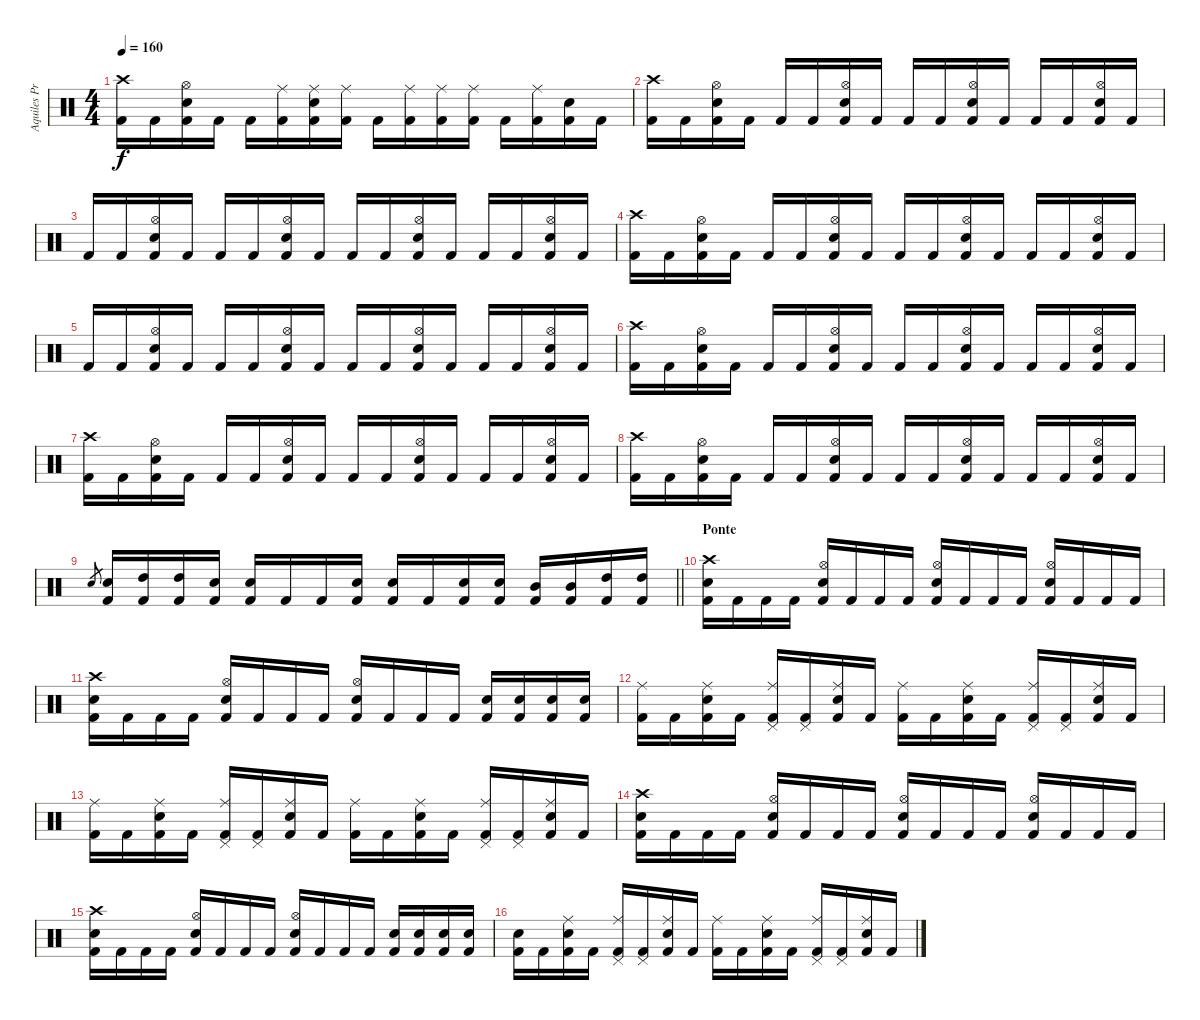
\track ("Aquiles Priester" "Aquiles Pr") {instrument percussion}
\staff {score}
\articulation defaults
\ts (4 4)
\tempo 160
\clef neutral
\ks c
("Crash high (hit)" "Kick (hit) 2").16{dy f} "Kick (hit) 2".16 ("Hi-Hat (open)" "Electric Snare (hit)" "Kick (hit) 2").16 "Kick (hit) 2".16 "Kick (hit) 2".16 ("Ride (middle)" "Kick (hit) 2").16 ("Ride (middle)" "Electric Snare (hit)" "Kick (hit) 2").16 ("Ride (middle)" "Kick (hit) 2").16 "Kick (hit) 2".16 ("Ride (middle)" "Kick (hit) 2").16 ("Ride (middle)" "Kick (hit) 2").16 ("Ride (middle)" "Kick (hit) 2").16 "Kick (hit) 2".16 ("Ride (middle)" "Kick (hit) 2").16 ("Electric Snare (hit)" "Kick (hit) 2").16 "Kick (hit) 2".16 |
("Crash high (hit)" "Kick (hit) 2").16 "Kick (hit) 2".16 ("Hi-Hat (open)" "Electric Snare (hit)" "Kick (hit) 2").16 "Kick (hit) 2".16 "Kick (hit) 2".16 "Kick (hit) 2".16 ("Hi-Hat (open)" "Electric Snare (hit)" "Kick (hit) 2").16 "Kick (hit) 2".16 "Kick (hit) 2".16 "Kick (hit) 2".16 ("Hi-Hat (open)" "Electric Snare (hit)" "Kick (hit) 2").16 "Kick (hit) 2".16 "Kick (hit) 2".16 "Kick (hit) 2".16 ("Hi-Hat (open)" "Electric Snare (hit)" "Kick (hit) 2").16 "Kick (hit) 2".16 |
"Kick (hit) 2".16 "Kick (hit) 2".16 ("Hi-Hat (open)" "Electric Snare (hit)" "Kick (hit) 2").16 "Kick (hit) 2".16 "Kick (hit) 2".16 "Kick (hit) 2".16 ("Hi-Hat (open)" "Electric Snare (hit)" "Kick (hit) 2").16 "Kick (hit) 2".16 "Kick (hit) 2".16 "Kick (hit) 2".16 ("Hi-Hat (open)" "Electric Snare (hit)" "Kick (hit) 2").16 "Kick (hit) 2".16 "Kick (hit) 2".16 "Kick (hit) 2".16 ("Hi-Hat (open)" "Electric Snare (hit)" "Kick (hit) 2").16 "Kick (hit) 2".16 |
("Crash high (hit)" "Kick (hit) 2").16 "Kick (hit) 2".16 ("Hi-Hat (open)" "Electric Snare (hit)" "Kick (hit) 2").16 "Kick (hit) 2".16 "Kick (hit) 2".16 "Kick (hit) 2".16 ("Hi-Hat (open)" "Electric Snare (hit)" "Kick (hit) 2").16 "Kick (hit) 2".16 "Kick (hit) 2".16 "Kick (hit) 2".16 ("Hi-Hat (open)" "Electric Snare (hit)" "Kick (hit) 2").16 "Kick (hit) 2".16 "Kick (hit) 2".16 "Kick (hit) 2".16 ("Hi-Hat (open)" "Electric Snare (hit)" "Kick (hit) 2").16 "Kick (hit) 2".16 |
"Kick (hit) 2".16 "Kick (hit) 2".16 ("Hi-Hat (open)" "Electric Snare (hit)" "Kick (hit) 2").16 "Kick (hit) 2".16 "Kick (hit) 2".16 "Kick (hit) 2".16 ("Hi-Hat (open)" "Electric Snare (hit)" "Kick (hit) 2").16 "Kick (hit) 2".16 "Kick (hit) 2".16 "Kick (hit) 2".16 ("Hi-Hat (open)" "Electric Snare (hit)" "Kick (hit) 2").16 "Kick (hit) 2".16 "Kick (hit) 2".16 "Kick (hit) 2".16 ("Hi-Hat (open)" "Electric Snare (hit)" "Kick (hit) 2").16 "Kick (hit) 2".16 |
("Crash high (hit)" "Kick (hit) 2").16 "Kick (hit) 2".16 ("Hi-Hat (open)" "Electric Snare (hit)" "Kick (hit) 2").16 "Kick (hit) 2".16 "Kick (hit) 2".16 "Kick (hit) 2".16 ("Hi-Hat (open)" "Electric Snare (hit)" "Kick (hit) 2").16 "Kick (hit) 2".16 "Kick (hit) 2".16 "Kick (hit) 2".16 ("Hi-Hat (open)" "Electric Snare (hit)" "Kick (hit) 2").16 "Kick (hit) 2".16 "Kick (hit) 2".16 "Kick (hit) 2".16 ("Hi-Hat (open)" "Electric Snare (hit)" "Kick (hit) 2").16 "Kick (hit) 2".16 |
("Crash high (hit)" "Kick (hit) 2").16 "Kick (hit) 2".16 ("Hi-Hat (open)" "Electric Snare (hit)" "Kick (hit) 2").16 "Kick (hit) 2".16 "Kick (hit) 2".16 "Kick (hit) 2".16 ("Hi-Hat (open)" "Electric Snare (hit)" "Kick (hit) 2").16 "Kick (hit) 2".16 "Kick (hit) 2".16 "Kick (hit) 2".16 ("Hi-Hat (open)" "Electric Snare (hit)" "Kick (hit) 2").16 "Kick (hit) 2".16 "Kick (hit) 2".16 "Kick (hit) 2".16 ("Hi-Hat (open)" "Electric Snare (hit)" "Kick (hit) 2").16 "Kick (hit) 2".16 |
("Crash high (hit)" "Kick (hit) 2").16 "Kick (hit) 2".16 ("Hi-Hat (open)" "Electric Snare (hit)" "Kick (hit) 2").16 "Kick (hit) 2".16 "Kick (hit) 2".16 "Kick (hit) 2".16 ("Hi-Hat (open)" "Electric Snare (hit)" "Kick (hit) 2").16 "Kick (hit) 2".16 "Kick (hit) 2".16 "Kick (hit) 2".16 ("Hi-Hat (open)" "Electric Snare (hit)" "Kick (hit) 2").16 "Kick (hit) 2".16 "Kick (hit) 2".16 "Kick (hit) 2".16 ("Hi-Hat (open)" "Electric Snare (hit)" "Kick (hit) 2").16 "Kick (hit) 2".16 |
\barLineRight lightlight "Electric Snare (hit)".8{gr}
("Electric Snare (hit)" "Kick (hit) 2").16 ("High Tom (hit)" "Kick (hit) 2").16 ("High Tom (hit)" "Kick (hit) 2").16 ("Electric Snare (hit)" "Kick (hit) 2").16 ("Electric Snare (hit)" "Kick (hit) 2").16 "Kick (hit) 2".16 "Kick (hit) 2".16 ("Electric Snare (hit)" "Kick (hit) 2").16 ("Electric Snare (hit)" "Kick (hit) 2").16 "Kick (hit) 2".16 ("Electric Snare (hit)" "Kick (hit) 2").16 ("Electric Snare (hit)" "Kick (hit) 2").16 ("Mid Tom (hit)" "Kick (hit) 2").16 ("Mid Tom (hit)" "Kick (hit) 2").16 ("High Tom (hit)" "Kick (hit) 2").16 ("High Tom (hit)" "Kick (hit) 2").16 |
\section ("" "Ponte")
("Crash high (hit)" "Electric Snare (hit)" "Kick (hit) 2").16 "Kick (hit) 2".16 "Kick (hit) 2".16 "Kick (hit) 2".16 ("Hi-Hat (open)" "Electric Snare (hit)" "Kick (hit) 2").16 "Kick (hit) 2".16 "Kick (hit) 2".16 "Kick (hit) 2".16 ("Hi-Hat (open)" "Electric Snare (hit)" "Kick (hit) 2").16 "Kick (hit) 2".16 "Kick (hit) 2".16 "Kick (hit) 2".16 ("Hi-Hat (open)" "Electric Snare (hit)" "Kick (hit) 2").16 "Kick (hit) 2".16 "Kick (hit) 2".16 "Kick (hit) 2".16 |
("Crash high (hit)" "Electric Snare (hit)" "Kick (hit) 2").16 "Kick (hit) 2".16 "Kick (hit) 2".16 "Kick (hit) 2".16 ("Hi-Hat (open)" "Electric Snare (hit)" "Kick (hit) 2").16 "Kick (hit) 2".16 "Kick (hit) 2".16 "Kick (hit) 2".16 ("Hi-Hat (open)" "Electric Snare (hit)" "Kick (hit) 2").16 "Kick (hit) 2".16 "Kick (hit) 2".16 "Kick (hit) 2".16 ("Electric Snare (hit)" "Kick (hit) 2").16 ("Electric Snare (hit)" "Kick (hit) 2").16 ("Electric Snare (hit)" "Kick (hit) 2").16 ("Electric Snare (hit)" "Kick (hit) 2").16 |
("Ride (middle)" "Kick (hit) 2").16 "Kick (hit) 2".16 ("Ride (middle)" "Electric Snare (hit)" "Kick (hit) 2").16 "Kick (hit) 2".16 ("Ride (middle)" "Pedal Hi-Hat (hit)" "Kick (hit) 2").16 ("Pedal Hi-Hat (hit)" "Kick (hit) 2").16 ("Ride (middle)" "Electric Snare (hit)" "Kick (hit) 2").16 "Kick (hit) 2".16 ("Ride (middle)" "Kick (hit) 2").16 "Kick (hit) 2".16 ("Ride (middle)" "Electric Snare (hit)" "Kick (hit) 2").16 "Kick (hit) 2".16 ("Ride (middle)" "Pedal Hi-Hat (hit)" "Kick (hit) 2").16 ("Pedal Hi-Hat (hit)" "Kick (hit) 2").16 ("Ride (middle)" "Electric Snare (hit)" "Kick (hit) 2").16 "Kick (hit) 2".16 |
("Ride (middle)" "Kick (hit) 2").16 "Kick (hit) 2".16 ("Ride (middle)" "Electric Snare (hit)" "Kick (hit) 2").16 "Kick (hit) 2".16 ("Ride (middle)" "Pedal Hi-Hat (hit)" "Kick (hit) 2").16 ("Pedal Hi-Hat (hit)" "Kick (hit) 2").16 ("Ride (middle)" "Electric Snare (hit)" "Kick (hit) 2").16 "Kick (hit) 2".16 ("Ride (middle)" "Kick (hit) 2").16 "Kick (hit) 2".16 ("Ride (middle)" "Electric Snare (hit)" "Kick (hit) 2").16 "Kick (hit) 2".16 ("Ride (middle)" "Pedal Hi-Hat (hit)" "Kick (hit) 2").16 ("Pedal Hi-Hat (hit)" "Kick (hit) 2").16 ("Ride (middle)" "Electric Snare (hit)" "Kick (hit) 2").16 "Kick (hit) 2".16 |
("Crash high (hit)" "Electric Snare (hit)" "Kick (hit) 2").16 "Kick (hit) 2".16 "Kick (hit) 2".16 "Kick (hit) 2".16 ("Hi-Hat (open)" "Electric Snare (hit)" "Kick (hit) 2").16 "Kick (hit) 2".16 "Kick (hit) 2".16 "Kick (hit) 2".16 ("Hi-Hat (open)" "Electric Snare (hit)" "Kick (hit) 2").16 "Kick (hit) 2".16 "Kick (hit) 2".16 "Kick (hit) 2".16 ("Hi-Hat (open)" "Electric Snare (hit)" "Kick (hit) 2").16 "Kick (hit) 2".16 "Kick (hit) 2".16 "Kick (hit) 2".16 |
("Crash high (hit)" "Electric Snare (hit)" "Kick (hit) 2").16 "Kick (hit) 2".16 "Kick (hit) 2".16 "Kick (hit) 2".16 ("Hi-Hat (open)" "Electric Snare (hit)" "Kick (hit) 2").16 "Kick (hit) 2".16 "Kick (hit) 2".16 "Kick (hit) 2".16 ("Hi-Hat (open)" "Electric Snare (hit)" "Kick (hit) 2").16 "Kick (hit) 2".16 "Kick (hit) 2".16 "Kick (hit) 2".16 ("Electric Snare (hit)" "Kick (hit) 2").16 ("Electric Snare (hit)" "Kick (hit) 2").16 ("Electric Snare (hit)" "Kick (hit) 2").16 ("Electric Snare (hit)" "Kick (hit) 2").16 |
("Electric Snare (hit)" "Kick (hit) 2").16 "Kick (hit) 2".16 ("Ride (middle)" "Electric Snare (hit)" "Kick (hit) 2").16 "Kick (hit) 2".16 ("Ride (middle)" "Pedal Hi-Hat (hit)" "Kick (hit) 2").16 ("Pedal Hi-Hat (hit)" "Kick (hit) 2").16 ("Ride (middle)" "Electric Snare (hit)" "Kick (hit) 2").16 "Kick (hit) 2".16 ("Ride (middle)" "Kick (hit) 2").16 "Kick (hit) 2".16 ("Ride (middle)" "Electric Snare (hit)" "Kick (hit) 2").16 "Kick (hit) 2".16 ("Ride (middle)" "Pedal Hi-Hat (hit)" "Kick (hit) 2").16 ("Pedal Hi-Hat (hit)" "Kick (hit) 2").16 ("Ride (middle)" "Electric Snare (hit)" "Kick (hit) 2").16 "Kick (hit) 2".16
